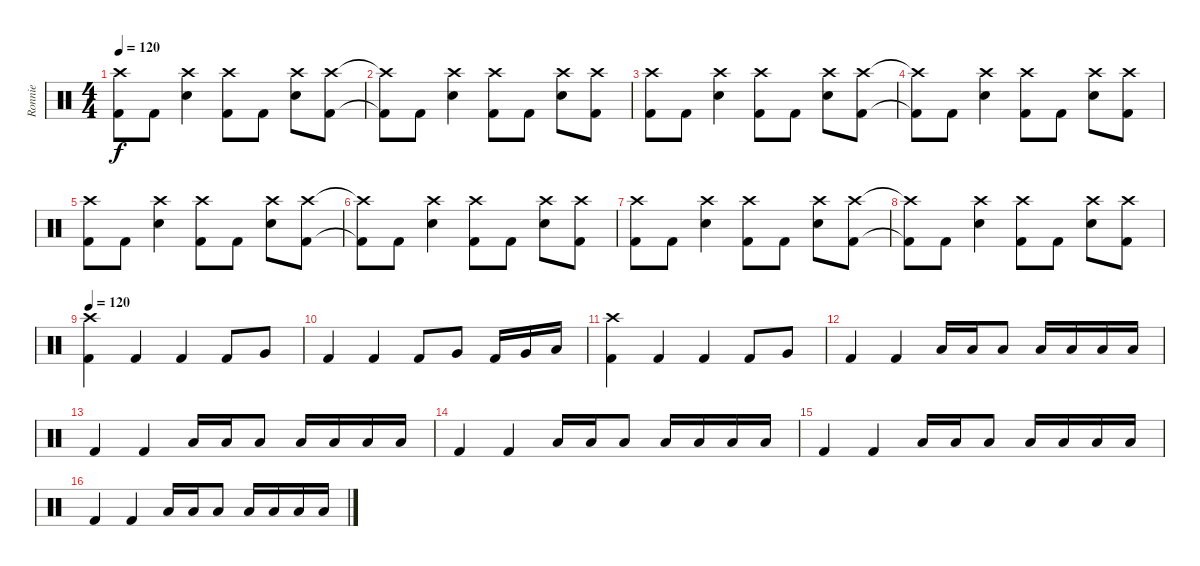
\track ("Ronnie" "Ronnie") {instrument percussion}
\staff {score}
\articulation defaults
\ts (4 4)
\tempo 120
\clef neutral
\ks c
("Crash high (hit)" "Kick (hit) 2").8{dy f} "Kick (hit) 2".8 ("Crash high (hit)" "Snare (hit) 2").4 ("Crash high (hit)" "Kick (hit) 2").8 "Kick (hit) 2".8 ("Crash high (hit)" "Snare (hit) 2").8 ("Crash high (hit)" "Kick (hit) 2").8 |
("Crash high (hit)"{t} "Kick (hit) 2"{t}).8 "Kick (hit) 2".8 ("Crash high (hit)" "Snare (hit) 2").4 ("Crash high (hit)" "Kick (hit) 2").8 "Kick (hit) 2".8 ("Crash high (hit)" "Snare (hit) 2").8 ("Crash high (hit)" "Kick (hit) 2").8 |
("Crash high (hit)" "Kick (hit) 2").8 "Kick (hit) 2".8 ("Crash high (hit)" "Snare (hit) 2").4 ("Crash high (hit)" "Kick (hit) 2").8 "Kick (hit) 2".8 ("Crash high (hit)" "Snare (hit) 2").8 ("Crash high (hit)" "Kick (hit) 2").8 |
("Crash high (hit)"{t} "Kick (hit) 2"{t}).8 "Kick (hit) 2".8 ("Crash high (hit)" "Snare (hit) 2").4 ("Crash high (hit)" "Kick (hit) 2").8 "Kick (hit) 2".8 ("Crash high (hit)" "Snare (hit) 2").8 ("Crash high (hit)" "Kick (hit) 2").8 |
("Crash high (hit)" "Kick (hit) 2").8 "Kick (hit) 2".8 ("Crash high (hit)" "Snare (hit) 2").4 ("Crash high (hit)" "Kick (hit) 2").8 "Kick (hit) 2".8 ("Crash high (hit)" "Snare (hit) 2").8 ("Crash high (hit)" "Kick (hit) 2").8 |
("Crash high (hit)"{t} "Kick (hit) 2"{t}).8 "Kick (hit) 2".8 ("Crash high (hit)" "Snare (hit) 2").4 ("Crash high (hit)" "Kick (hit) 2").8 "Kick (hit) 2".8 ("Crash high (hit)" "Snare (hit) 2").8 ("Crash high (hit)" "Kick (hit) 2").8 |
("Crash high (hit)" "Kick (hit) 2").8 "Kick (hit) 2".8 ("Crash high (hit)" "Snare (hit) 2").4 ("Crash high (hit)" "Kick (hit) 2").8 "Kick (hit) 2".8 ("Crash high (hit)" "Snare (hit) 2").8 ("Crash high (hit)" "Kick (hit) 2").8 |
("Crash high (hit)"{t} "Kick (hit) 2"{t}).8 "Kick (hit) 2".8 ("Crash high (hit)" "Snare (hit) 2").4 ("Crash high (hit)" "Kick (hit) 2").8 "Kick (hit) 2".8 ("Crash high (hit)" "Snare (hit) 2").8 ("Crash high (hit)" "Kick (hit) 2").8 |
\tempo 120
("Kick (hit) 2" "Crash high (hit)").4 "Kick (hit) 2".4 "Kick (hit) 2".4 "Kick (hit) 2".8 "Very Low Tom (hit)".8 |
"Kick (hit) 2".4 "Kick (hit) 2".4 "Kick (hit) 2".8 "Very Low Tom (hit)".8 "Kick (hit) 2".16 "Very Low Tom (hit)".16 "Low Floor Tom (hit)".16 |
("Kick (hit) 2" "Crash high (hit)").4 "Kick (hit) 2".4 "Kick (hit) 2".4 "Kick (hit) 2".8 "Very Low Tom (hit)".8 |
"Kick (hit) 2".4 "Kick (hit) 2".4 "Low Tom (hit)".16 "Low Tom (hit)".16 "Low Tom (hit)".8 "Low Tom (hit)".16 "Low Tom (hit)".16 "Low Tom (hit)".16 "Low Tom (hit)".16 |
"Kick (hit) 2".4 "Kick (hit) 2".4 "Low Tom (hit)".16 "Low Tom (hit)".16 "Low Tom (hit)".8 "Low Tom (hit)".16 "Low Tom (hit)".16 "Low Tom (hit)".16 "Low Tom (hit)".16 |
"Kick (hit) 2".4 "Kick (hit) 2".4 "Low Tom (hit)".16 "Low Tom (hit)".16 "Low Tom (hit)".8 "Low Tom (hit)".16 "Low Tom (hit)".16 "Low Tom (hit)".16 "Low Tom (hit)".16 |
"Kick (hit) 2".4 "Kick (hit) 2".4 "Low Tom (hit)".16 "Low Tom (hit)".16 "Low Tom (hit)".8 "Low Tom (hit)".16 "Low Tom (hit)".16 "Low Tom (hit)".16 "Low Tom (hit)".16 |
"Kick (hit) 2".4 "Kick (hit) 2".4 "Low Tom (hit)".16 "Low Tom (hit)".16 "Low Tom (hit)".8 "Low Tom (hit)".16 "Low Tom (hit)".16 "Low Tom (hit)".16 "Low Tom (hit)".16
